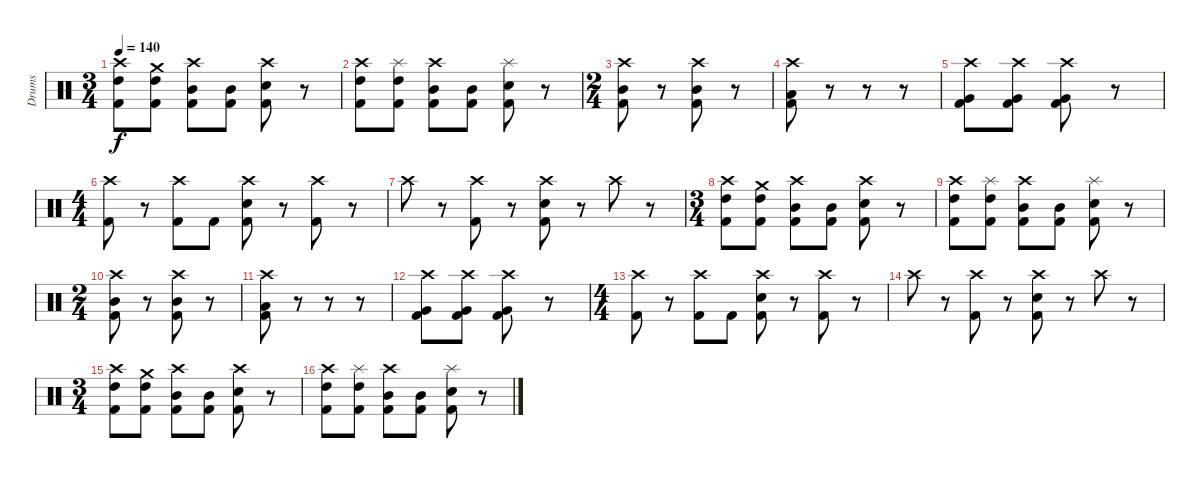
\track ("Drums" "Drums") {instrument percussion}
\staff {score}
\articulation defaults
\ts (3 4)
\tempo 140
\clef neutral
\ks c
("Crash high (hit)" "High Tom (hit)" "Kick (hit) 2").8{dy f} ("Crash medium (hit)" "High Tom (hit)" "Kick (hit) 2").8 ("Crash high (hit)" "Mid Tom (hit)" "Kick (hit) 2").8 ("Mid Tom (hit)" "Kick (hit) 2").8 ("Crash high (hit)" "Snare (hit) 2" "Kick (hit) 2").8 r.8 |
("Crash high (hit)" "High Tom (hit)" "Kick (hit) 2").8 ("Splash (hit)" "High Tom (hit)" "Kick (hit) 2").8 ("Crash high (hit)" "Mid Tom (hit)" "Kick (hit) 2").8 ("Mid Tom (hit)" "Kick (hit) 2").8 ("Splash (hit)" "Snare (hit) 2" "Kick (hit) 2").8 r.8 |
\ts (2 4)
("Crash high (hit)" "Mid Tom (hit)" "Kick (hit) 2").8 r.8 ("Crash high (hit)" "Mid Tom (hit)" "Kick (hit) 2").8 r.8 |
("Crash high (hit)" "Low Tom (hit)" "Kick (hit) 2").8 r.8 r.8 r.8 |
("Crash high (hit)" "Very Low Tom (hit)" "Kick (hit) 2").8 ("Crash high (hit)" "Very Low Tom (hit)" "Kick (hit) 2").8 ("Crash high (hit)" "Very Low Tom (hit)" "Kick (hit) 2").8 r.8 |
\ts (4 4)
("Crash high (hit)" "Kick (hit) 2").8 r.8 ("Crash high (hit)" "Kick (hit) 2").8 "Kick (hit) 2".8 ("Crash high (hit)" "Snare (hit) 2" "Kick (hit) 2").8 r.8 ("Crash high (hit)" "Kick (hit) 2").8 r.8 |
"Crash high (hit)".8 r.8 ("Crash high (hit)" "Kick (hit) 2").8 r.8 ("Crash high (hit)" "Snare (hit) 2" "Kick (hit) 2").8 r.8 "Crash high (hit)".8 r.8 |
\ts (3 4)
("Crash high (hit)" "High Tom (hit)" "Kick (hit) 2").8 ("Crash medium (hit)" "High Tom (hit)" "Kick (hit) 2").8 ("Crash high (hit)" "Mid Tom (hit)" "Kick (hit) 2").8 ("Mid Tom (hit)" "Kick (hit) 2").8 ("Crash high (hit)" "Snare (hit) 2" "Kick (hit) 2").8 r.8 |
("Crash high (hit)" "High Tom (hit)" "Kick (hit) 2").8 ("Splash (hit)" "High Tom (hit)" "Kick (hit) 2").8 ("Crash high (hit)" "Mid Tom (hit)" "Kick (hit) 2").8 ("Mid Tom (hit)" "Kick (hit) 2").8 ("Splash (hit)" "Snare (hit) 2" "Kick (hit) 2").8 r.8 |
\ts (2 4)
("Crash high (hit)" "Mid Tom (hit)" "Kick (hit) 2").8 r.8 ("Crash high (hit)" "Mid Tom (hit)" "Kick (hit) 2").8 r.8 |
("Crash high (hit)" "Low Tom (hit)" "Kick (hit) 2").8 r.8 r.8 r.8 |
("Crash high (hit)" "Very Low Tom (hit)" "Kick (hit) 2").8 ("Crash high (hit)" "Very Low Tom (hit)" "Kick (hit) 2").8 ("Crash high (hit)" "Very Low Tom (hit)" "Kick (hit) 2").8 r.8 |
\ts (4 4)
("Crash high (hit)" "Kick (hit) 2").8 r.8 ("Crash high (hit)" "Kick (hit) 2").8 "Kick (hit) 2".8 ("Crash high (hit)" "Snare (hit) 2" "Kick (hit) 2").8 r.8 ("Crash high (hit)" "Kick (hit) 2").8 r.8 |
"Crash high (hit)".8 r.8 ("Crash high (hit)" "Kick (hit) 2").8 r.8 ("Crash high (hit)" "Snare (hit) 2" "Kick (hit) 2").8 r.8 "Crash high (hit)".8 r.8 |
\ts (3 4)
("Crash high (hit)" "High Tom (hit)" "Kick (hit) 2").8 ("Crash medium (hit)" "High Tom (hit)" "Kick (hit) 2").8 ("Crash high (hit)" "Mid Tom (hit)" "Kick (hit) 2").8 ("Mid Tom (hit)" "Kick (hit) 2").8 ("Crash high (hit)" "Snare (hit) 2" "Kick (hit) 2").8 r.8 |
("Crash high (hit)" "High Tom (hit)" "Kick (hit) 2").8 ("Splash (hit)" "High Tom (hit)" "Kick (hit) 2").8 ("Crash high (hit)" "Mid Tom (hit)" "Kick (hit) 2").8 ("Mid Tom (hit)" "Kick (hit) 2").8 ("Splash (hit)" "Snare (hit) 2" "Kick (hit) 2").8 r.8
